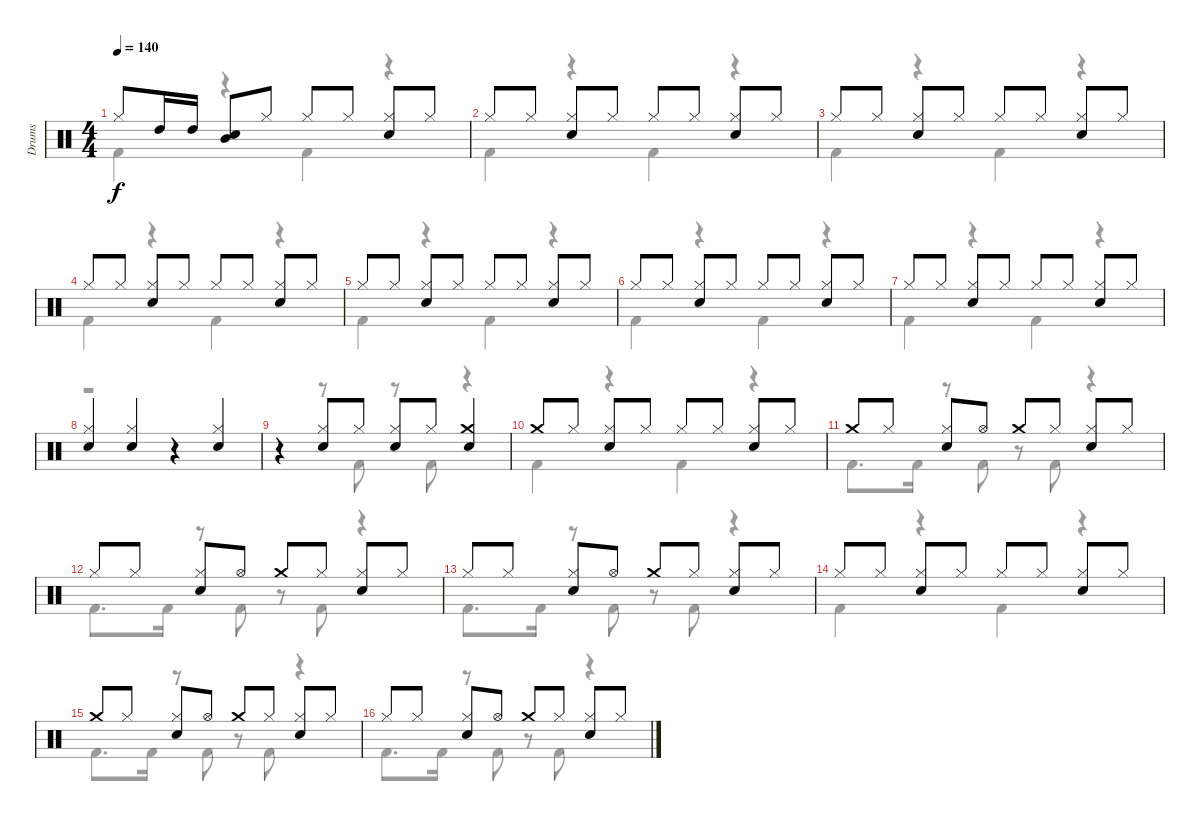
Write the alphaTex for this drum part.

\track ("Drums" "Drums") {instrument percussion}
\staff {score}
\articulation defaults
\voice
\ts (4 4)
\tempo 140
\clef neutral
\ks c "Hi-Hat (closed)".8{dy f} "High Tom (hit)".16 "High Tom (hit)".16
("Mid Tom (hit)" "Snare (hit) 2").8 "Hi-Hat (closed)".8 "Hi-Hat (closed)".8 "Hi-Hat (closed)".8 ("Hi-Hat (closed)" "Snare (hit) 2").8 "Hi-Hat (closed)".8 |
"Hi-Hat (closed)".8 "Hi-Hat (closed)".8 ("Hi-Hat (closed)" "Snare (hit) 2").8 "Hi-Hat (closed)".8 "Hi-Hat (closed)".8 "Hi-Hat (closed)".8 ("Hi-Hat (closed)" "Snare (hit) 2").8 "Hi-Hat (closed)".8 |
"Hi-Hat (closed)".8 "Hi-Hat (closed)".8 ("Hi-Hat (closed)" "Snare (hit) 2").8 "Hi-Hat (closed)".8 "Hi-Hat (closed)".8 "Hi-Hat (closed)".8 ("Hi-Hat (closed)" "Snare (hit) 2").8 "Hi-Hat (closed)".8 |
"Hi-Hat (closed)".8 "Hi-Hat (closed)".8 ("Hi-Hat (closed)" "Snare (hit) 2").8 "Hi-Hat (closed)".8 "Hi-Hat (closed)".8 "Hi-Hat (closed)".8 ("Hi-Hat (closed)" "Snare (hit) 2").8 "Hi-Hat (closed)".8 |
"Hi-Hat (closed)".8 "Hi-Hat (closed)".8 ("Hi-Hat (closed)" "Snare (hit) 2").8 "Hi-Hat (closed)".8 "Hi-Hat (closed)".8 "Hi-Hat (closed)".8 ("Hi-Hat (closed)" "Snare (hit) 2").8 "Hi-Hat (closed)".8 |
"Hi-Hat (closed)".8 "Hi-Hat (closed)".8 ("Hi-Hat (closed)" "Snare (hit) 2").8 "Hi-Hat (closed)".8 "Hi-Hat (closed)".8 "Hi-Hat (closed)".8 ("Hi-Hat (closed)" "Snare (hit) 2").8 "Hi-Hat (closed)".8 |
"Hi-Hat (closed)".8 "Hi-Hat (closed)".8 ("Hi-Hat (closed)" "Snare (hit) 2").8 "Hi-Hat (closed)".8 "Hi-Hat (closed)".8 "Hi-Hat (closed)".8 ("Hi-Hat (closed)" "Snare (hit) 2").8 "Hi-Hat (closed)".8 |
("Hi-Hat (closed)" "Snare (hit) 2").4 ("Hi-Hat (closed)" "Snare (hit) 2").4 r.4 ("Hi-Hat (closed)" "Snare (hit) 2").4 |
r.4 ("Hi-Hat (closed)" "Snare (hit) 2").8 "Hi-Hat (closed)".8 ("Hi-Hat (closed)" "Snare (hit) 2").8 "Hi-Hat (closed)".8 ("Crash medium (hit)" "Snare (hit) 2").4 |
"Crash medium (hit)".8 "Hi-Hat (closed)".8 ("Hi-Hat (closed)" "Snare (hit) 2").8 "Hi-Hat (closed)".8 "Hi-Hat (closed)".8 "Hi-Hat (closed)".8 ("Hi-Hat (closed)" "Snare (hit) 2").8 "Hi-Hat (closed)".8 |
"Crash medium (hit)".8 "Hi-Hat (closed)".8 ("Hi-Hat (closed)" "Snare (hit) 2").8 "Hi-Hat (open)".8 "Crash medium (hit)".8 "Hi-Hat (closed)".8 ("Hi-Hat (closed)" "Snare (hit) 2").8 "Hi-Hat (closed)".8 |
"Hi-Hat (closed)".8 "Hi-Hat (closed)".8 ("Hi-Hat (closed)" "Snare (hit) 2").8 "Hi-Hat (open)".8 "Crash medium (hit)".8 "Hi-Hat (closed)".8 ("Hi-Hat (closed)" "Snare (hit) 2").8 "Hi-Hat (closed)".8 |
"Hi-Hat (closed)".8 "Hi-Hat (closed)".8 ("Hi-Hat (closed)" "Snare (hit) 2").8 "Hi-Hat (open)".8 "Crash medium (hit)".8 "Hi-Hat (closed)".8 ("Hi-Hat (closed)" "Snare (hit) 2").8 "Hi-Hat (closed)".8 |
"Hi-Hat (closed)".8 "Hi-Hat (closed)".8 ("Hi-Hat (closed)" "Snare (hit) 2").8 "Hi-Hat (closed)".8 "Hi-Hat (closed)".8 "Hi-Hat (closed)".8 ("Hi-Hat (closed)" "Snare (hit) 2").8 "Hi-Hat (closed)".8 |
"Crash medium (hit)".8 "Hi-Hat (closed)".8 ("Hi-Hat (closed)" "Snare (hit) 2").8 "Hi-Hat (open)".8 "Crash medium (hit)".8 "Hi-Hat (closed)".8 ("Hi-Hat (closed)" "Snare (hit) 2").8 "Hi-Hat (closed)".8 |
"Hi-Hat (closed)".8 "Hi-Hat (closed)".8 ("Hi-Hat (closed)" "Snare (hit) 2").8 "Hi-Hat (open)".8 "Crash medium (hit)".8 "Hi-Hat (closed)".8 ("Hi-Hat (closed)" "Snare (hit) 2").8 "Hi-Hat (closed)".8
\voice
\clef neutral
\ottava regular
\simile none
\ks c "Kick (hit) 2".4{dy f}
r.4 "Kick (hit) 2".4 r.4 |
"Kick (hit) 2".4 r.4 "Kick (hit) 2".4 r.4 |
"Kick (hit) 2".4 r.4 "Kick (hit) 2".4 r.4 |
"Kick (hit) 2".4 r.4 "Kick (hit) 2".4 r.4 |
"Kick (hit) 2".4 r.4 "Kick (hit) 2".4 r.4 |
"Kick (hit) 2".4 r.4 "Kick (hit) 2".4 r.4 |
"Kick (hit) 2".4 r.4 "Kick (hit) 2".4 r.4 |
r.1 |
r.4 r.8 "Kick (hit) 2".8 r.8 "Kick (hit) 2".8 r.4 |
"Kick (hit) 2".4 r.4 "Kick (hit) 2".4 r.4 |
"Kick (hit) 2".8{d} "Kick (hit) 2".16 r.8 "Kick (hit) 2".8 r.8 "Kick (hit) 2".8 r.4 |
"Kick (hit) 2".8{d} "Kick (hit) 2".16 r.8 "Kick (hit) 2".8 r.8 "Kick (hit) 2".8 r.4 |
"Kick (hit) 2".8{d} "Kick (hit) 2".16 r.8 "Kick (hit) 2".8 r.8 "Kick (hit) 2".8 r.4 |
"Kick (hit) 2".4 r.4 "Kick (hit) 2".4 r.4 |
"Kick (hit) 2".8{d} "Kick (hit) 2".16 r.8 "Kick (hit) 2".8 r.8 "Kick (hit) 2".8 r.4 |
"Kick (hit) 2".8{d} "Kick (hit) 2".16 r.8 "Kick (hit) 2".8 r.8 "Kick (hit) 2".8 r.4
